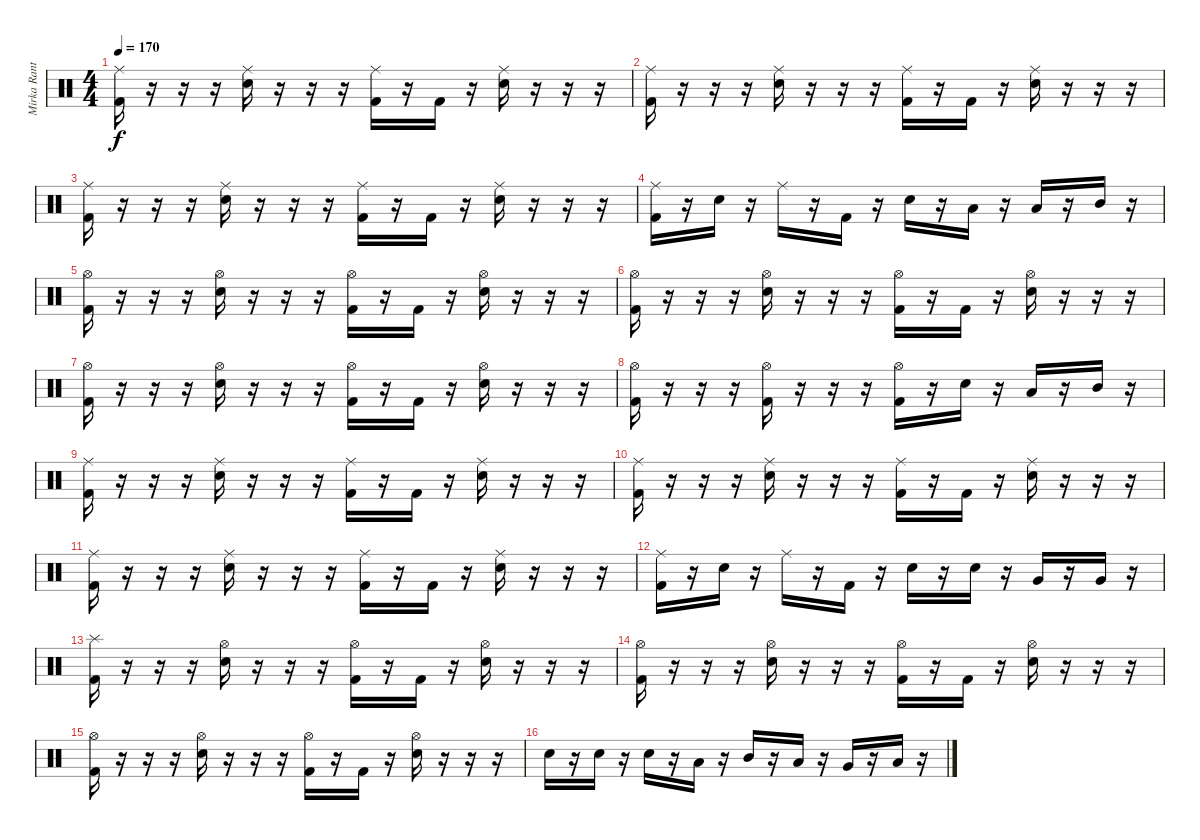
\track ("Mirka Rantanen" "Mirka Rant") {instrument percussion}
\staff {score}
\articulation defaults
\ts (4 4)
\tempo 170
\clef neutral
\ks c
("Ride (middle)" "Kick (hit) 2").16{dy f} r.16 r.16 r.16 ("Ride (middle)" "Snare (hit) 2").16 r.16 r.16 r.16 ("Ride (middle)" "Kick (hit) 2").16 r.16 "Kick (hit) 2".16 r.16 ("Ride (middle)" "Snare (hit) 2").16 r.16 r.16 r.16 |
("Ride (middle)" "Kick (hit) 2").16 r.16 r.16 r.16 ("Ride (middle)" "Snare (hit) 2").16 r.16 r.16 r.16 ("Ride (middle)" "Kick (hit) 2").16 r.16 "Kick (hit) 2".16 r.16 ("Ride (middle)" "Snare (hit) 2").16 r.16 r.16 r.16 |
("Ride (middle)" "Kick (hit) 2").16 r.16 r.16 r.16 ("Ride (middle)" "Snare (hit) 2").16 r.16 r.16 r.16 ("Ride (middle)" "Kick (hit) 2").16 r.16 "Kick (hit) 2".16 r.16 ("Ride (middle)" "Snare (hit) 2").16 r.16 r.16 r.16 |
("Ride (middle)" "Kick (hit) 2").16 r.16 "Snare (hit) 2".16 r.16 "Ride (middle)".16 r.16 "Kick (hit) 2".16 r.16 "Snare (hit) 2".16 r.16 "Low Tom (hit)".16 r.16 "Low Tom (hit)".16 r.16 "Mid Tom (hit)".16 r.16 |
("Hi-Hat (open)" "Kick (hit) 2").16 r.16 r.16 r.16 ("Hi-Hat (open)" "Snare (hit) 2").16 r.16 r.16 r.16 ("Hi-Hat (open)" "Kick (hit) 2").16 r.16 "Kick (hit) 2".16 r.16 ("Hi-Hat (open)" "Snare (hit) 2").16 r.16 r.16 r.16 |
("Hi-Hat (open)" "Kick (hit) 2").16 r.16 r.16 r.16 ("Hi-Hat (open)" "Snare (hit) 2").16 r.16 r.16 r.16 ("Hi-Hat (open)" "Kick (hit) 2").16 r.16 "Kick (hit) 2".16 r.16 ("Hi-Hat (open)" "Snare (hit) 2").16 r.16 r.16 r.16 |
("Hi-Hat (open)" "Kick (hit) 2").16 r.16 r.16 r.16 ("Hi-Hat (open)" "Snare (hit) 2").16 r.16 r.16 r.16 ("Hi-Hat (open)" "Kick (hit) 2").16 r.16 "Kick (hit) 2".16 r.16 ("Hi-Hat (open)" "Snare (hit) 2").16 r.16 r.16 r.16 |
("Hi-Hat (open)" "Kick (hit) 2").16 r.16 r.16 r.16 ("Hi-Hat (open)" "Kick (hit) 2").16 r.16 r.16 r.16 ("Hi-Hat (open)" "Kick (hit) 2").16 r.16 "Snare (hit) 2".16 r.16 "Low Tom (hit)".16 r.16 "Mid Tom (hit)".16 r.16 |
("Ride (middle)" "Kick (hit) 2").16 r.16 r.16 r.16 ("Ride (middle)" "Snare (hit) 2").16 r.16 r.16 r.16 ("Ride (middle)" "Kick (hit) 2").16 r.16 "Kick (hit) 2".16 r.16 ("Ride (middle)" "Snare (hit) 2").16 r.16 r.16 r.16 |
("Ride (middle)" "Kick (hit) 2").16 r.16 r.16 r.16 ("Ride (middle)" "Snare (hit) 2").16 r.16 r.16 r.16 ("Ride (middle)" "Kick (hit) 2").16 r.16 "Kick (hit) 2".16 r.16 ("Ride (middle)" "Snare (hit) 2").16 r.16 r.16 r.16 |
("Ride (middle)" "Kick (hit) 2").16 r.16 r.16 r.16 ("Ride (middle)" "Snare (hit) 2").16 r.16 r.16 r.16 ("Ride (middle)" "Kick (hit) 2").16 r.16 "Kick (hit) 2".16 r.16 ("Ride (middle)" "Snare (hit) 2").16 r.16 r.16 r.16 |
("Ride (middle)" "Kick (hit) 2").16 r.16 "Snare (hit) 2".16 r.16 "Ride (middle)".16 r.16 "Kick (hit) 2".16 r.16 "Snare (hit) 2".16 r.16 "Snare (hit) 2".16 r.16 "Very Low Tom (hit)".16 r.16 "Very Low Tom (hit)".16 r.16 |
("Splash (hit)" "Kick (hit) 2").16 r.16 r.16 r.16 ("Hi-Hat (open)" "Snare (hit) 2").16 r.16 r.16 r.16 ("Hi-Hat (open)" "Kick (hit) 2").16 r.16 "Kick (hit) 2".16 r.16 ("Hi-Hat (open)" "Snare (hit) 2").16 r.16 r.16 r.16 |
("Hi-Hat (open)" "Kick (hit) 2").16 r.16 r.16 r.16 ("Hi-Hat (open)" "Snare (hit) 2").16 r.16 r.16 r.16 ("Hi-Hat (open)" "Kick (hit) 2").16 r.16 "Kick (hit) 2".16 r.16 ("Hi-Hat (open)" "Snare (hit) 2").16 r.16 r.16 r.16 |
("Hi-Hat (open)" "Kick (hit) 2").16 r.16 r.16 r.16 ("Hi-Hat (open)" "Snare (hit) 2").16 r.16 r.16 r.16 ("Hi-Hat (open)" "Kick (hit) 2").16 r.16 "Kick (hit) 2".16 r.16 ("Hi-Hat (open)" "Snare (hit) 2").16 r.16 r.16 r.16 |
"Snare (hit) 2".16 r.16 "Snare (hit) 2".16 r.16 "Snare (hit) 2".16 r.16 "Low Tom (hit)".16 r.16 "Mid Tom (hit)".16 r.16 "Low Tom (hit)".16 r.16 "Very Low Tom (hit)".16 r.16 "Low Floor Tom (hit)".16 r.16
